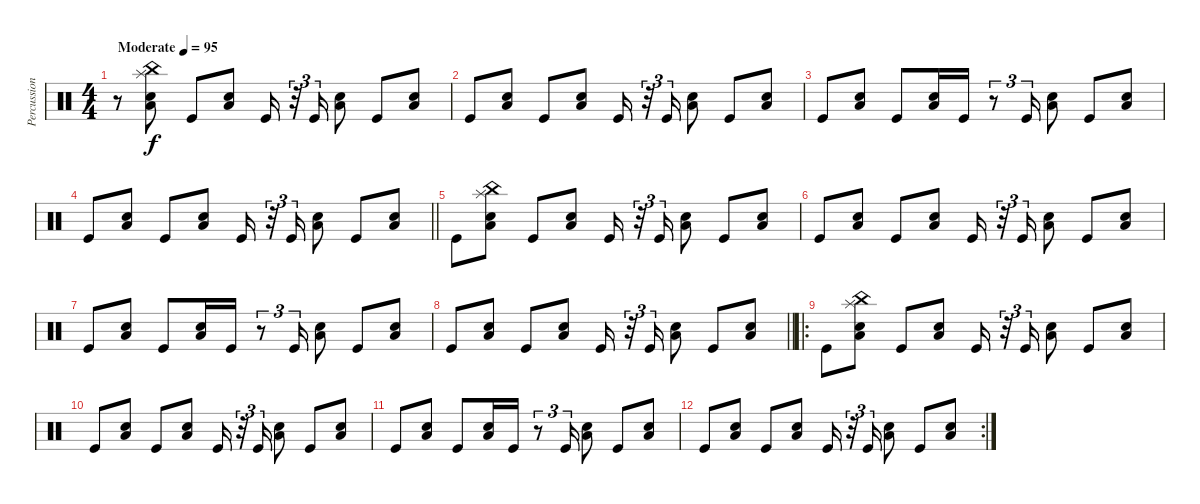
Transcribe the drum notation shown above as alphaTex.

\track ("Percussions" "Percussion") {instrument percussion}
\staff {score}
\articulation defaults
\ts (4 4)
\section ("" "")
\tempo (95 "Moderate")
\clef neutral
\ks c
r.8{dy f} ("China (hit)" "Splash (hit)" "Low Floor Tom (hit)" "Snare (hit) 2").8 "Kick (hit)".8 ("Low Floor Tom (hit)" "Snare (hit) 2").8 "Kick (hit)".16 r.32{tu (3 2)} "Kick (hit)".16{tu (3 2)} ("Low Floor Tom (hit)" "Snare (hit) 2").8 "Kick (hit)".8 ("Low Floor Tom (hit)" "Snare (hit) 2").8 |
"Kick (hit)".8 ("Low Floor Tom (hit)" "Snare (hit) 2").8 "Kick (hit)".8 ("Low Floor Tom (hit)" "Snare (hit) 2").8 "Kick (hit)".16 r.32{tu (3 2)} "Kick (hit)".16{tu (3 2)} ("Low Floor Tom (hit)" "Snare (hit) 2").8 "Kick (hit)".8 ("Low Floor Tom (hit)" "Snare (hit) 2").8 |
"Kick (hit)".8 ("Low Floor Tom (hit)" "Snare (hit) 2").8 "Kick (hit)".8 ("Low Floor Tom (hit)" "Snare (hit) 2").16 "Kick (hit)".16 r.8{tu (3 2)} "Kick (hit)".16{tu (3 2)} ("Low Floor Tom (hit)" "Snare (hit) 2").8 "Kick (hit)".8 ("Low Floor Tom (hit)" "Snare (hit) 2").8 |
\barLineRight lightlight "Kick (hit)".8
("Low Floor Tom (hit)" "Snare (hit) 2").8 "Kick (hit)".8 ("Low Floor Tom (hit)" "Snare (hit) 2").8 "Kick (hit)".16 r.32{tu (3 2)} "Kick (hit)".16{tu (3 2)} ("Low Floor Tom (hit)" "Snare (hit) 2").8 "Kick (hit)".8 ("Low Floor Tom (hit)" "Snare (hit) 2").8 |
\section ("" "")
"Kick (hit)".8 ("China (hit)" "Splash (hit)" "Low Floor Tom (hit)" "Snare (hit) 2").8 "Kick (hit)".8 ("Low Floor Tom (hit)" "Snare (hit) 2").8 "Kick (hit)".16 r.32{tu (3 2)} "Kick (hit)".16{tu (3 2)} ("Low Floor Tom (hit)" "Snare (hit) 2").8 "Kick (hit)".8 ("Low Floor Tom (hit)" "Snare (hit) 2").8 |
"Kick (hit)".8 ("Low Floor Tom (hit)" "Snare (hit) 2").8 "Kick (hit)".8 ("Low Floor Tom (hit)" "Snare (hit) 2").8 "Kick (hit)".16 r.32{tu (3 2)} "Kick (hit)".16{tu (3 2)} ("Low Floor Tom (hit)" "Snare (hit) 2").8 "Kick (hit)".8 ("Low Floor Tom (hit)" "Snare (hit) 2").8 |
"Kick (hit)".8 ("Low Floor Tom (hit)" "Snare (hit) 2").8 "Kick (hit)".8 ("Low Floor Tom (hit)" "Snare (hit) 2").16 "Kick (hit)".16 r.8{tu (3 2)} "Kick (hit)".16{tu (3 2)} ("Low Floor Tom (hit)" "Snare (hit) 2").8 "Kick (hit)".8 ("Low Floor Tom (hit)" "Snare (hit) 2").8 |
\barLineRight lightlight "Kick (hit)".8
("Low Floor Tom (hit)" "Snare (hit) 2").8 "Kick (hit)".8 ("Low Floor Tom (hit)" "Snare (hit) 2").8 "Kick (hit)".16 r.32{tu (3 2)} "Kick (hit)".16{tu (3 2)} ("Low Floor Tom (hit)" "Snare (hit) 2").8 "Kick (hit)".8 ("Low Floor Tom (hit)" "Snare (hit) 2").8 |
\ro
\section ("" "")
"Kick (hit)".8 ("China (hit)" "Splash (hit)" "Low Floor Tom (hit)" "Snare (hit) 2").8 "Kick (hit)".8 ("Low Floor Tom (hit)" "Snare (hit) 2").8 "Kick (hit)".16 r.32{tu (3 2)} "Kick (hit)".16{tu (3 2)} ("Low Floor Tom (hit)" "Snare (hit) 2").8 "Kick (hit)".8 ("Low Floor Tom (hit)" "Snare (hit) 2").8 |
"Kick (hit)".8 ("Low Floor Tom (hit)" "Snare (hit) 2").8 "Kick (hit)".8 ("Low Floor Tom (hit)" "Snare (hit) 2").8 "Kick (hit)".16 r.32{tu (3 2)} "Kick (hit)".16{tu (3 2)} ("Low Floor Tom (hit)" "Snare (hit) 2").8 "Kick (hit)".8 ("Low Floor Tom (hit)" "Snare (hit) 2").8 |
"Kick (hit)".8 ("Low Floor Tom (hit)" "Snare (hit) 2").8 "Kick (hit)".8 ("Low Floor Tom (hit)" "Snare (hit) 2").16 "Kick (hit)".16 r.8{tu (3 2)} "Kick (hit)".16{tu (3 2)} ("Low Floor Tom (hit)" "Snare (hit) 2").8 "Kick (hit)".8 ("Low Floor Tom (hit)" "Snare (hit) 2").8 |
\rc 2 "Kick (hit)".8
("Low Floor Tom (hit)" "Snare (hit) 2").8 "Kick (hit)".8 ("Low Floor Tom (hit)" "Snare (hit) 2").8 "Kick (hit)".16 r.32{tu (3 2)} "Kick (hit)".16{tu (3 2)} ("Low Floor Tom (hit)" "Snare (hit) 2").8 "Kick (hit)".8 ("Low Floor Tom (hit)" "Snare (hit) 2").8
